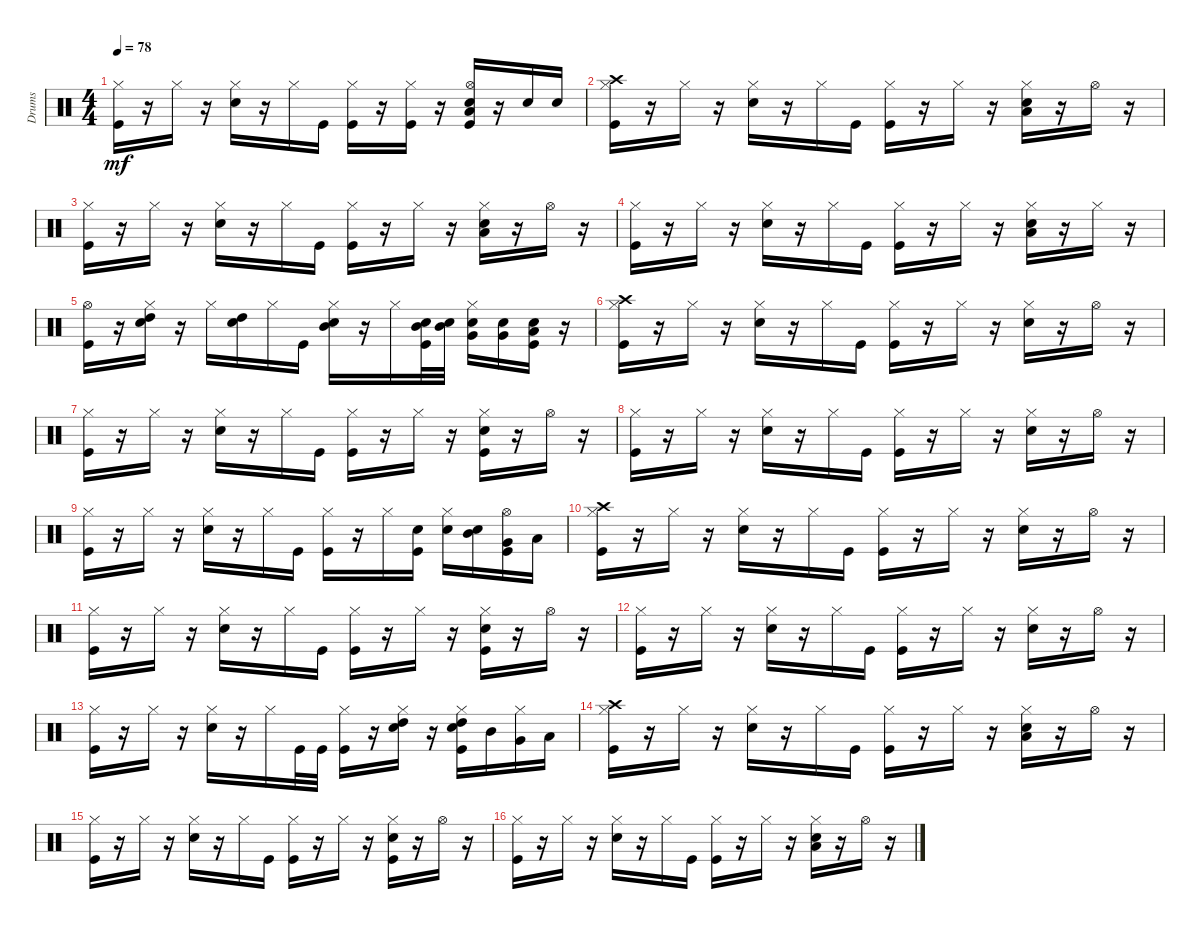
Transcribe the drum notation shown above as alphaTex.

\track ("Drums               " "Drums     ") {instrument percussion}
\staff {score}
\articulation defaults
\ts (4 4)
\tempo 78
\clef neutral
\ks c
("Kick (hit)" "Hi-Hat (closed)").16{dy mf} r.16 "Hi-Hat (closed)".16 r.16 ("Snare (hit) 2" "Hi-Hat (closed)").16 r.16 "Hi-Hat (closed)".16 "Kick (hit)".16 ("Kick (hit)" "Hi-Hat (closed)").16 r.16 ("Kick (hit)" "Hi-Hat (closed)").16 r.16 ("Kick (hit)" "Snare (hit) 2" "Hi-Hat (open)" "Low Floor Tom (hit)").16 r.16 "Snare (hit) 2".16 "Snare (hit) 2".16 |
("Kick (hit)" "Hi-Hat (closed)" "Crash high (hit)").16 r.16 "Hi-Hat (closed)".16 r.16 ("Snare (hit) 2" "Hi-Hat (closed)").16 r.16 "Hi-Hat (closed)".16 "Kick (hit)".16 ("Kick (hit)" "Hi-Hat (closed)").16 r.16 "Hi-Hat (closed)".16 r.16 ("Snare (hit) 2" "Hi-Hat (closed)" "Low Floor Tom (hit)").16 r.16 "Hi-Hat (open)".16 r.16 |
("Kick (hit)" "Hi-Hat (closed)").16 r.16 "Hi-Hat (closed)".16 r.16 ("Snare (hit) 2" "Hi-Hat (closed)").16 r.16 "Hi-Hat (closed)".16 "Kick (hit)".16 ("Kick (hit)" "Hi-Hat (closed)").16 r.16 "Hi-Hat (closed)".16 r.16 ("Snare (hit) 2" "Hi-Hat (closed)" "Low Floor Tom (hit)").16 r.16 "Hi-Hat (open)".16 r.16 |
("Kick (hit)" "Hi-Hat (closed)").16 r.16 "Hi-Hat (closed)".16 r.16 ("Snare (hit) 2" "Hi-Hat (closed)").16 r.16 "Hi-Hat (closed)".16 "Kick (hit)".16 ("Kick (hit)" "Hi-Hat (closed)").16 r.16 "Hi-Hat (closed)".16 r.16 ("Snare (hit) 2" "Hi-Hat (closed)" "Low Floor Tom (hit)").16 r.16 "Hi-Hat (closed)".16 r.16 |
("Kick (hit)" "Hi-Hat (open)").16 r.16 ("Snare (hit) 2" "Hi-Hat (closed)" "High Tom (hit)").16 r.16 "Hi-Hat (closed)".16 ("High Tom (hit)" "Snare (hit) 2").16 "Hi-Hat (closed)".16 "Kick (hit)".16 ("Snare (hit) 2" "Hi-Hat (closed)" "Mid Tom (hit)").16 r.16 "Hi-Hat (closed)".16 ("Kick (hit)" "Mid Tom (hit)" "Snare (hit) 2").32 ("Snare (hit) 2" "Mid Tom (hit)").32 ("Snare (hit) 2" "Hi-Hat (closed)" "Very Low Tom (hit)").16 ("Snare (hit) 2" "Very Low Tom (hit)").16 ("Kick (hit)" "Snare (hit) 2" "Low Floor Tom (hit)").16 r.16 |
("Kick (hit)" "Hi-Hat (closed)" "Crash high (hit)").16 r.16 "Hi-Hat (closed)".16 r.16 ("Snare (hit) 2" "Hi-Hat (closed)").16 r.16 "Hi-Hat (closed)".16 "Kick (hit)".16 ("Kick (hit)" "Hi-Hat (closed)").16 r.16 "Hi-Hat (closed)".16 r.16 ("Snare (hit) 2" "Hi-Hat (closed)").16 r.16 "Hi-Hat (open)".16 r.16 |
("Kick (hit)" "Hi-Hat (closed)").16 r.16 "Hi-Hat (closed)".16 r.16 ("Snare (hit) 2" "Hi-Hat (closed)").16 r.16 "Hi-Hat (closed)".16 "Kick (hit)".16 ("Kick (hit)" "Hi-Hat (closed)").16 r.16 "Hi-Hat (closed)".16 r.16 ("Kick (hit)" "Snare (hit) 2" "Hi-Hat (closed)").16 r.16 "Hi-Hat (open)".16 r.16 |
("Kick (hit)" "Hi-Hat (closed)").16 r.16 "Hi-Hat (closed)".16 r.16 ("Snare (hit) 2" "Hi-Hat (closed)").16 r.16 "Hi-Hat (closed)".16 "Kick (hit)".16 ("Kick (hit)" "Hi-Hat (closed)").16 r.16 "Hi-Hat (closed)".16 r.16 ("Snare (hit) 2" "Hi-Hat (closed)").16 r.16 "Hi-Hat (open)".16 r.16 |
("Kick (hit)" "Hi-Hat (closed)").16 r.16 "Hi-Hat (closed)".16 r.16 ("Snare (hit) 2" "Hi-Hat (closed)").16 r.16 "Hi-Hat (closed)".16 "Kick (hit)".16 ("Kick (hit)" "Hi-Hat (closed)").16 r.16 "Hi-Hat (closed)".16 ("Kick (hit)" "Snare (hit) 2").16 ("Snare (hit) 2" "Hi-Hat (closed)").16 ("Snare (hit) 2" "Mid Tom (hit)").16 ("Kick (hit)" "Hi-Hat (open)" "Very Low Tom (hit)").16 "Low Floor Tom (hit)".16 |
("Kick (hit)" "Hi-Hat (closed)" "Crash high (hit)").16 r.16 "Hi-Hat (closed)".16 r.16 ("Snare (hit) 2" "Hi-Hat (closed)").16 r.16 "Hi-Hat (closed)".16 "Kick (hit)".16 ("Kick (hit)" "Hi-Hat (closed)").16 r.16 "Hi-Hat (closed)".16 r.16 ("Snare (hit) 2" "Hi-Hat (closed)").16 r.16 "Hi-Hat (open)".16 r.16 |
("Kick (hit)" "Hi-Hat (closed)").16 r.16 "Hi-Hat (closed)".16 r.16 ("Snare (hit) 2" "Hi-Hat (closed)").16 r.16 "Hi-Hat (closed)".16 "Kick (hit)".16 ("Kick (hit)" "Hi-Hat (closed)").16 r.16 "Hi-Hat (closed)".16 r.16 ("Kick (hit)" "Snare (hit) 2" "Hi-Hat (closed)").16 r.16 "Hi-Hat (open)".16 r.16 |
("Kick (hit)" "Hi-Hat (closed)").16 r.16 "Hi-Hat (closed)".16 r.16 ("Snare (hit) 2" "Hi-Hat (closed)").16 r.16 "Hi-Hat (closed)".16 "Kick (hit)".16 ("Kick (hit)" "Hi-Hat (closed)").16 r.16 "Hi-Hat (closed)".16 r.16 ("Snare (hit) 2" "Hi-Hat (closed)").16 r.16 "Hi-Hat (open)".16 r.16 |
("Kick (hit)" "Hi-Hat (closed)").16 r.16 "Hi-Hat (closed)".16 r.16 ("Snare (hit) 2" "Hi-Hat (closed)").16 r.16 "Hi-Hat (closed)".16 "Kick (hit)".32 "Kick (hit)".32 ("Kick (hit)" "Hi-Hat (closed)").16 r.16 ("Snare (hit) 2" "Hi-Hat (closed)" "High Tom (hit)").16 r.16 ("Kick (hit)" "Snare (hit) 2" "Hi-Hat (closed)" "High Tom (hit)").16 "Mid Tom (hit)".16 ("Hi-Hat (closed)" "Very Low Tom (hit)").16 "Low Floor Tom (hit)".16 |
("Kick (hit)" "Hi-Hat (closed)" "Crash high (hit)").16 r.16 "Hi-Hat (closed)".16 r.16 ("Snare (hit) 2" "Hi-Hat (closed)").16 r.16 "Hi-Hat (closed)".16 "Kick (hit)".16 ("Kick (hit)" "Hi-Hat (closed)").16 r.16 "Hi-Hat (closed)".16 r.16 ("Snare (hit) 2" "Hi-Hat (closed)" "Low Floor Tom (hit)").16 r.16 "Hi-Hat (open)".16 r.16 |
("Kick (hit)" "Hi-Hat (closed)").16 r.16 "Hi-Hat (closed)".16 r.16 ("Snare (hit) 2" "Hi-Hat (closed)").16 r.16 "Hi-Hat (closed)".16 "Kick (hit)".16 ("Kick (hit)" "Hi-Hat (closed)").16 r.16 "Hi-Hat (closed)".16 r.16 ("Kick (hit)" "Snare (hit) 2" "Hi-Hat (closed)").16 r.16 "Hi-Hat (open)".16 r.16 |
("Kick (hit)" "Hi-Hat (closed)").16 r.16 "Hi-Hat (closed)".16 r.16 ("Snare (hit) 2" "Hi-Hat (closed)").16 r.16 "Hi-Hat (closed)".16 "Kick (hit)".16 ("Kick (hit)" "Hi-Hat (closed)").16 r.16 "Hi-Hat (closed)".16 r.16 ("Snare (hit) 2" "Hi-Hat (closed)" "Low Floor Tom (hit)").16 r.16 "Hi-Hat (open)".16 r.16
